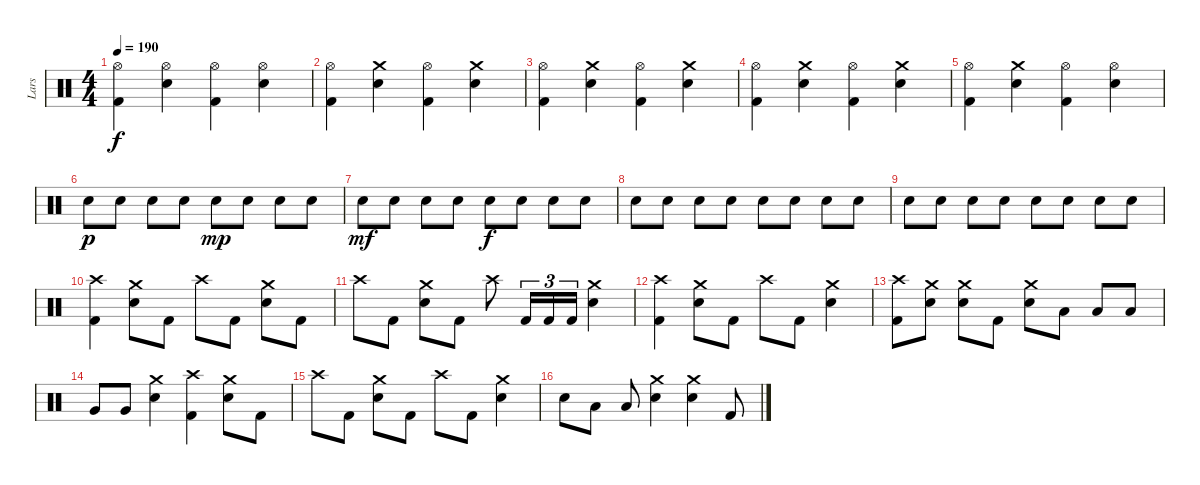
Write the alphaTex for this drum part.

\track ("Lars" "Lars") {instrument percussion}
\staff {score}
\articulation defaults
\ts (4 4)
\tempo 190
\clef neutral
\ks c
("Hi-Hat (open)" "Kick (hit) 2").4{dy f} ("Hi-Hat (open)" "Snare (hit) 2").4 ("Hi-Hat (open)" "Kick (hit) 2").4 ("Hi-Hat (open)" "Snare (hit) 2").4 |
("Hi-Hat (open)" "Kick (hit) 2").4 ("Crash medium (hit)" "Snare (hit) 2").4 ("Hi-Hat (open)" "Kick (hit) 2").4 ("Crash medium (hit)" "Snare (hit) 2").4 |
("Hi-Hat (open)" "Kick (hit) 2").4 ("Crash medium (hit)" "Snare (hit) 2").4 ("Hi-Hat (open)" "Kick (hit) 2").4 ("Crash medium (hit)" "Snare (hit) 2").4 |
("Hi-Hat (open)" "Kick (hit) 2").4 ("Crash medium (hit)" "Snare (hit) 2").4 ("Hi-Hat (open)" "Kick (hit) 2").4 ("Crash medium (hit)" "Snare (hit) 2").4 |
("Hi-Hat (open)" "Kick (hit) 2").4 ("Crash medium (hit)" "Snare (hit) 2").4 ("Hi-Hat (open)" "Kick (hit) 2").4 ("Hi-Hat (open)" "Snare (hit) 2").4 |
"Snare (hit) 2".8{dy p} "Snare (hit) 2".8 "Snare (hit) 2".8 "Snare (hit) 2".8 "Snare (hit) 2".8{dy mp} "Snare (hit) 2".8 "Snare (hit) 2".8 "Snare (hit) 2".8 |
"Snare (hit) 2".8{dy mf} "Snare (hit) 2".8 "Snare (hit) 2".8 "Snare (hit) 2".8 "Snare (hit) 2".8{dy f} "Snare (hit) 2".8 "Snare (hit) 2".8 "Snare (hit) 2".8 |
"Snare (hit) 2".8 "Snare (hit) 2".8 "Snare (hit) 2".8 "Snare (hit) 2".8 "Snare (hit) 2".8 "Snare (hit) 2".8 "Snare (hit) 2".8 "Snare (hit) 2".8 |
"Snare (hit) 2".8 "Snare (hit) 2".8 "Snare (hit) 2".8 "Snare (hit) 2".8 "Snare (hit) 2".8 "Snare (hit) 2".8 "Snare (hit) 2".8 "Snare (hit) 2".8 |
("Crash high (hit)" "Kick (hit) 2").4 ("Crash medium (hit)" "Snare (hit) 2").8 "Kick (hit) 2".8 "Crash high (hit)".8 "Kick (hit) 2".8 ("Crash medium (hit)" "Snare (hit) 2").8 "Kick (hit) 2".8 |
"Crash high (hit)".8 "Kick (hit) 2".8 ("Crash medium (hit)" "Snare (hit) 2").8 "Kick (hit) 2".8 "Crash high (hit)".8 "Kick (hit) 2".16{tu (3 2)} "Kick (hit) 2".16{tu (3 2)} "Kick (hit) 2".16{tu (3 2)} ("Crash medium (hit)" "Snare (hit) 2").4 |
("Crash high (hit)" "Kick (hit) 2").4 ("Crash medium (hit)" "Snare (hit) 2").8 "Kick (hit) 2".8 "Crash high (hit)".8 "Kick (hit) 2".8 ("Crash medium (hit)" "Snare (hit) 2").4 |
("Crash high (hit)" "Kick (hit) 2").8 ("Crash medium (hit)" "Snare (hit) 2").8 ("Crash medium (hit)" "Snare (hit) 2").8 "Kick (hit) 2".8 ("Crash medium (hit)" "Snare (hit) 2").8 "Low Tom (hit)".8 "Low Tom (hit)".8 "Low Tom (hit)".8 |
"Very Low Tom (hit)".8 "Very Low Tom (hit)".8 ("Crash medium (hit)" "Snare (hit) 2").4 ("Crash high (hit)" "Kick (hit) 2").4 ("Crash medium (hit)" "Snare (hit) 2").8 "Kick (hit) 2".8 |
"Crash high (hit)".8 "Kick (hit) 2".8 ("Crash medium (hit)" "Snare (hit) 2").8 "Kick (hit) 2".8 "Crash high (hit)".8 "Kick (hit) 2".8 ("Crash medium (hit)" "Snare (hit) 2").4 |
"Snare (hit) 2".8 "Low Tom (hit)".8 "Low Tom (hit)".8 ("Crash medium (hit)" "Snare (hit) 2").4 ("Crash medium (hit)" "Snare (hit) 2").4 "Kick (hit) 2".8
